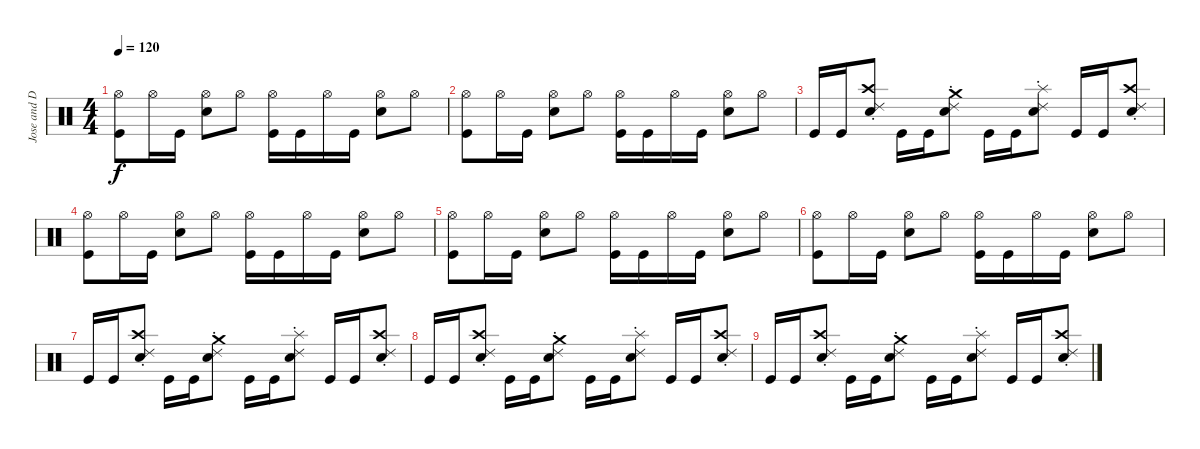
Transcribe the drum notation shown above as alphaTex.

\track ("Jose and Dj" "Jose and D") {instrument percussion}
\staff {score}
\articulation defaults
\ts (4 4)
\tempo 120
\clef neutral
\ks c
("Hi-Hat (open)" "Kick (hit)").8{dy f} "Hi-Hat (open)".16 "Kick (hit)".16 ("Hi-Hat (open)" "Snare (hit) 2").8 "Hi-Hat (open)".8 ("Hi-Hat (open)" "Kick (hit)").16 "Kick (hit)".16 "Hi-Hat (open)".16 "Kick (hit)".16 ("Hi-Hat (open)" "Snare (hit) 2").8 "Hi-Hat (open)".8 |
("Hi-Hat (open)" "Kick (hit)").8 "Hi-Hat (open)".16 "Kick (hit)".16 ("Hi-Hat (open)" "Snare (hit) 2").8 "Hi-Hat (open)".8 ("Hi-Hat (open)" "Kick (hit)").16 "Kick (hit)".16 "Hi-Hat (open)".16 "Kick (hit)".16 ("Hi-Hat (open)" "Snare (hit) 2").8 "Hi-Hat (open)".8 |
"Kick (hit)".16 "Kick (hit)".16 ("Crash high (hit)" "Snare (hit) 2" "Ride (choke) 2").8 "Kick (hit)".16 "Kick (hit)".16 ("Crash medium (hit)" "Snare (hit) 2" "Ride (choke) 2").8 "Kick (hit)".16 "Kick (hit)".16 ("Splash (hit)" "Snare (hit) 2" "Ride (choke) 2").8 "Kick (hit)".16 "Kick (hit)".16 ("Crash high (hit)" "Snare (hit) 2" "Ride (choke) 2").8 |
("Hi-Hat (open)" "Kick (hit)").8 "Hi-Hat (open)".16 "Kick (hit)".16 ("Hi-Hat (open)" "Snare (hit) 2").8 "Hi-Hat (open)".8 ("Hi-Hat (open)" "Kick (hit)").16 "Kick (hit)".16 "Hi-Hat (open)".16 "Kick (hit)".16 ("Hi-Hat (open)" "Snare (hit) 2").8 "Hi-Hat (open)".8 |
("Hi-Hat (open)" "Kick (hit)").8 "Hi-Hat (open)".16 "Kick (hit)".16 ("Hi-Hat (open)" "Snare (hit) 2").8 "Hi-Hat (open)".8 ("Hi-Hat (open)" "Kick (hit)").16 "Kick (hit)".16 "Hi-Hat (open)".16 "Kick (hit)".16 ("Hi-Hat (open)" "Snare (hit) 2").8 "Hi-Hat (open)".8 |
("Hi-Hat (open)" "Kick (hit)").8 "Hi-Hat (open)".16 "Kick (hit)".16 ("Hi-Hat (open)" "Snare (hit) 2").8 "Hi-Hat (open)".8 ("Hi-Hat (open)" "Kick (hit)").16 "Kick (hit)".16 "Hi-Hat (open)".16 "Kick (hit)".16 ("Hi-Hat (open)" "Snare (hit) 2").8 "Hi-Hat (open)".8 |
"Kick (hit)".16 "Kick (hit)".16 ("Crash high (hit)" "Snare (hit) 2" "Ride (choke) 2").8 "Kick (hit)".16 "Kick (hit)".16 ("Crash medium (hit)" "Snare (hit) 2" "Ride (choke) 2").8 "Kick (hit)".16 "Kick (hit)".16 ("Splash (hit)" "Snare (hit) 2" "Ride (choke) 2").8 "Kick (hit)".16 "Kick (hit)".16 ("Crash high (hit)" "Snare (hit) 2" "Ride (choke) 2").8 |
"Kick (hit)".16 "Kick (hit)".16 ("Crash high (hit)" "Snare (hit) 2" "Ride (choke) 2").8 "Kick (hit)".16 "Kick (hit)".16 ("Crash medium (hit)" "Snare (hit) 2" "Ride (choke) 2").8 "Kick (hit)".16 "Kick (hit)".16 ("Splash (hit)" "Snare (hit) 2" "Ride (choke) 2").8 "Kick (hit)".16 "Kick (hit)".16 ("Crash high (hit)" "Snare (hit) 2" "Ride (choke) 2").8 |
"Kick (hit)".16{volume 0} "Kick (hit)".16 ("Crash high (hit)" "Snare (hit) 2" "Ride (choke) 2").8 "Kick (hit)".16 "Kick (hit)".16 ("Crash medium (hit)" "Snare (hit) 2" "Ride (choke) 2").8 "Kick (hit)".16 "Kick (hit)".16 ("Splash (hit)" "Snare (hit) 2" "Ride (choke) 2").8 "Kick (hit)".16 "Kick (hit)".16 ("Crash high (hit)" "Snare (hit) 2" "Ride (choke) 2").8
